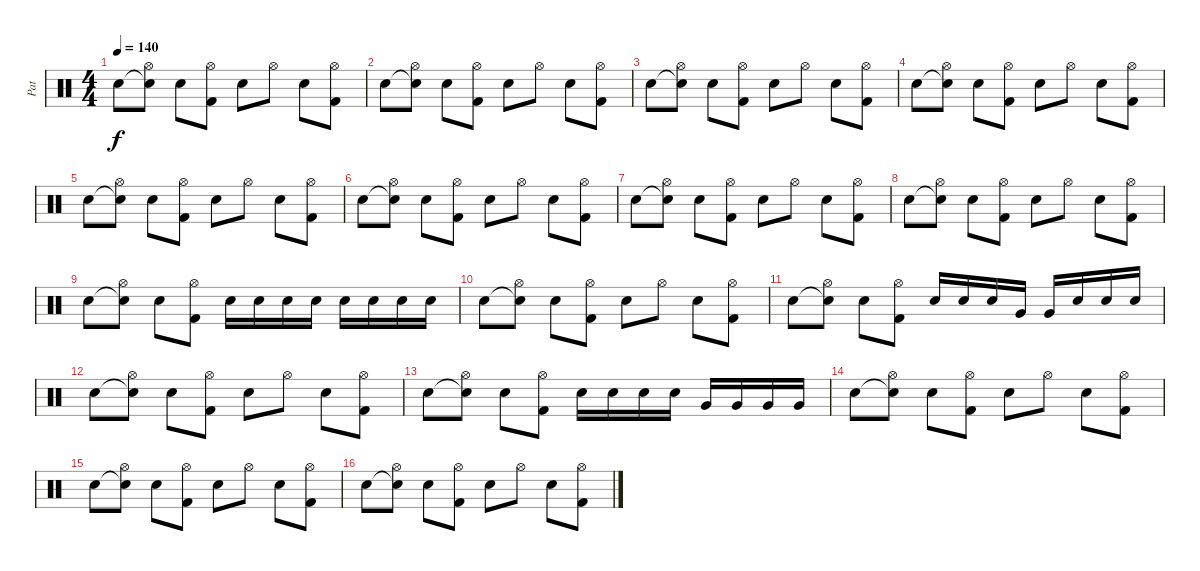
\track ("Pat" "Pat") {instrument percussion}
\staff {score}
\articulation defaults
\ts (4 4)
\tempo 140
\clef neutral
\ks c "Snare (hit) 2".8{dy f}
("Snare (hit)"{t} "Hi-Hat (open)").8 "Snare (hit) 2".8 ("Kick (hit) 2" "Hi-Hat (open)").8 "Snare (hit) 2".8 "Hi-Hat (open)".8 "Snare (hit) 2".8 ("Kick (hit) 2" "Hi-Hat (open)").8 |
"Snare (hit) 2".8 ("Snare (hit)"{t} "Hi-Hat (open)").8 "Snare (hit) 2".8 ("Kick (hit) 2" "Hi-Hat (open)").8 "Snare (hit) 2".8 "Hi-Hat (open)".8 "Snare (hit) 2".8 ("Kick (hit) 2" "Hi-Hat (open)").8 |
"Snare (hit) 2".8 ("Snare (hit)"{t} "Hi-Hat (open)").8 "Snare (hit) 2".8 ("Kick (hit) 2" "Hi-Hat (open)").8 "Snare (hit) 2".8 "Hi-Hat (open)".8 "Snare (hit) 2".8 ("Kick (hit) 2" "Hi-Hat (open)").8 |
"Snare (hit) 2".8 ("Snare (hit)"{t} "Hi-Hat (open)").8 "Snare (hit) 2".8 ("Kick (hit) 2" "Hi-Hat (open)").8 "Snare (hit) 2".8 "Hi-Hat (open)".8 "Snare (hit) 2".8 ("Kick (hit) 2" "Hi-Hat (open)").8 |
"Snare (hit) 2".8 ("Snare (hit)"{t} "Hi-Hat (open)").8 "Snare (hit) 2".8 ("Kick (hit) 2" "Hi-Hat (open)").8 "Snare (hit) 2".8 "Hi-Hat (open)".8 "Snare (hit) 2".8 ("Kick (hit) 2" "Hi-Hat (open)").8 |
"Snare (hit) 2".8 ("Snare (hit)"{t} "Hi-Hat (open)").8 "Snare (hit) 2".8 ("Kick (hit) 2" "Hi-Hat (open)").8 "Snare (hit) 2".8 "Hi-Hat (open)".8 "Snare (hit) 2".8 ("Kick (hit) 2" "Hi-Hat (open)").8 |
"Snare (hit) 2".8 ("Snare (hit)"{t} "Hi-Hat (open)").8 "Snare (hit) 2".8 ("Kick (hit) 2" "Hi-Hat (open)").8 "Snare (hit) 2".8 "Hi-Hat (open)".8 "Snare (hit) 2".8 ("Kick (hit) 2" "Hi-Hat (open)").8 |
"Snare (hit) 2".8 ("Snare (hit)"{t} "Hi-Hat (open)").8 "Snare (hit) 2".8 ("Kick (hit) 2" "Hi-Hat (open)").8 "Snare (hit) 2".8 "Hi-Hat (open)".8 "Snare (hit) 2".8 ("Kick (hit) 2" "Hi-Hat (open)").8 |
"Snare (hit) 2".8 ("Snare (hit)"{t} "Hi-Hat (open)").8 "Snare (hit) 2".8 ("Kick (hit) 2" "Hi-Hat (open)").8 "Snare (hit) 2".16 "Snare (hit) 2".16 "Snare (hit) 2".16 "Snare (hit) 2".16 "Snare (hit) 2".16 "Snare (hit) 2".16 "Snare (hit) 2".16 "Snare (hit) 2".16 |
"Snare (hit) 2".8 ("Snare (hit)"{t} "Hi-Hat (open)").8 "Snare (hit) 2".8 ("Kick (hit) 2" "Hi-Hat (open)").8 "Snare (hit) 2".8 "Hi-Hat (open)".8 "Snare (hit) 2".8 ("Kick (hit) 2" "Hi-Hat (open)").8 |
"Snare (hit) 2".8 ("Snare (hit)"{t} "Hi-Hat (open)").8 "Snare (hit) 2".8 ("Kick (hit) 2" "Hi-Hat (open)").8 "Snare (hit) 2".16 "Snare (hit) 2".16 "Snare (hit) 2".16 "Very Low Tom (hit)".16 "Very Low Tom (hit)".16 "Snare (hit) 2".16 "Snare (hit) 2".16 "Snare (hit) 2".16 |
"Snare (hit) 2".8 ("Snare (hit)"{t} "Hi-Hat (open)").8 "Snare (hit) 2".8 ("Kick (hit) 2" "Hi-Hat (open)").8 "Snare (hit) 2".8 "Hi-Hat (open)".8 "Snare (hit) 2".8 ("Kick (hit) 2" "Hi-Hat (open)").8 |
"Snare (hit) 2".8 ("Snare (hit)"{t} "Hi-Hat (open)").8 "Snare (hit) 2".8 ("Kick (hit) 2" "Hi-Hat (open)").8 "Snare (hit) 2".16 "Snare (hit) 2".16 "Snare (hit) 2".16 "Snare (hit) 2".16 "Very Low Tom (hit)".16 "Very Low Tom (hit)".16 "Very Low Tom (hit)".16 "Very Low Tom (hit)".16 |
"Snare (hit) 2".8 ("Snare (hit)"{t} "Hi-Hat (open)").8 "Snare (hit) 2".8 ("Kick (hit) 2" "Hi-Hat (open)").8 "Snare (hit) 2".8 "Hi-Hat (open)".8 "Snare (hit) 2".8 ("Kick (hit) 2" "Hi-Hat (open)").8 |
"Snare (hit) 2".8 ("Snare (hit)"{t} "Hi-Hat (open)").8 "Snare (hit) 2".8 ("Kick (hit) 2" "Hi-Hat (open)").8 "Snare (hit) 2".8 "Hi-Hat (open)".8 "Snare (hit) 2".8 ("Kick (hit) 2" "Hi-Hat (open)").8 |
"Snare (hit) 2".8 ("Snare (hit)"{t} "Hi-Hat (open)").8 "Snare (hit) 2".8 ("Kick (hit) 2" "Hi-Hat (open)").8 "Snare (hit) 2".8 "Hi-Hat (open)".8 "Snare (hit) 2".8 ("Kick (hit) 2" "Hi-Hat (open)").8
